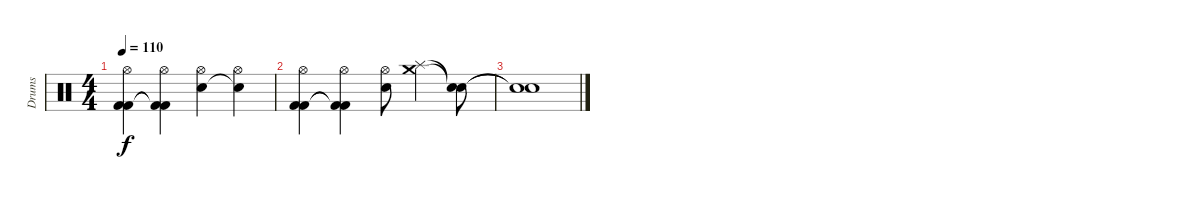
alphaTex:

\track ("Drums" "Drums") {instrument percussion}
\staff {score}
\articulation defaults
\ts (4 4)
\tempo 110
\clef neutral
\ks c
("Hi-Hat (open)" "Kick (hit) 2" "Kick (hit) 2").4{dy f} ("Hi-Hat (open)" "Kick (hit) 2"{t} "Kick (hit) 2"{t}).4 ("Hi-Hat (open)" "Snare (hit) 2").4 ("Hi-Hat (open)" "Snare (hit)"{t}).4 |
("Hi-Hat (open)" "Kick (hit) 2" "Kick (hit) 2").4 ("Hi-Hat (open)" "Kick (hit) 2"{t} "Kick (hit) 2"{t}).4 ("Hi-Hat (open)" "Snare (hit) 2").8 ("Splash (hit)" "Crash medium (hit)").4 ("Snare (hit)"{t} "Snare (hit)"{t}).8 |
("Snare (hit)"{t} "Snare (hit)"{t}).1
